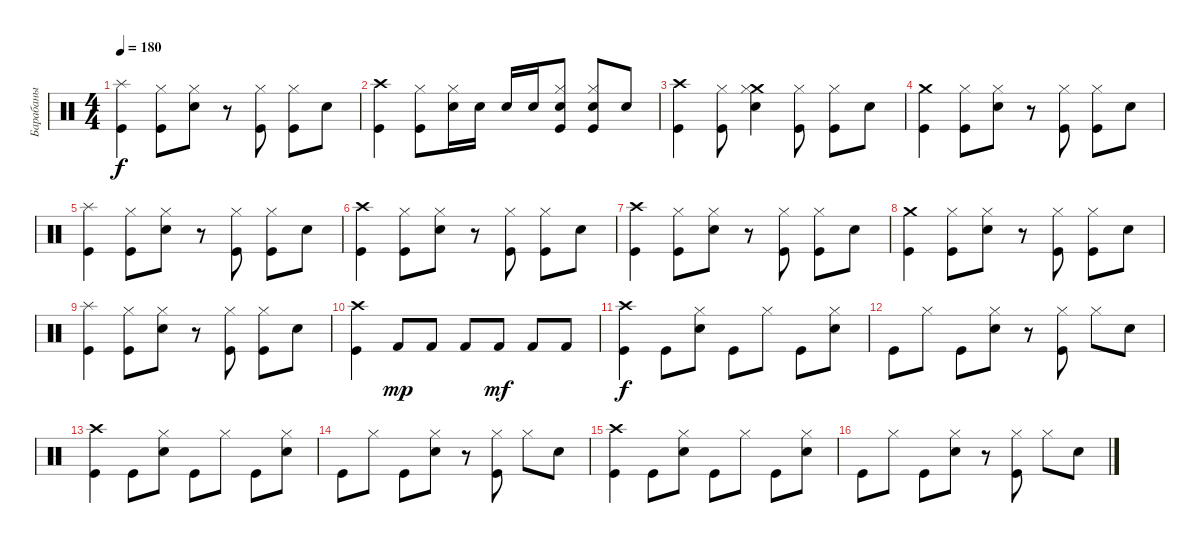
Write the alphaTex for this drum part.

\track ("Барабаны" "Барабаны") {instrument percussion}
\staff {score}
\articulation defaults
\ts (4 4)
\tempo 180
\clef neutral
\ks c
("Splash (hit)" "Kick (hit)").4{dy f} ("Hi-Hat (closed)" "Kick (hit)").8 ("Electric Snare (hit)" "Hi-Hat (closed)").8 r.8 ("Kick (hit)" "Hi-Hat (closed)").8 ("Kick (hit)" "Hi-Hat (closed)").8 "Electric Snare (hit)".8 |
("Kick (hit)" "Crash high (hit)").4 ("Kick (hit)" "Hi-Hat (closed)").8 ("Hi-Hat (closed)" "Electric Snare (hit)").16 "Electric Snare (hit)".16 "Electric Snare (hit)".16 "Electric Snare (hit)".16 ("Electric Snare (hit)" "Kick (hit)" "Hi-Hat (closed)").8 ("Electric Snare (hit)" "Hi-Hat (closed)" "Kick (hit)").8 "Electric Snare (hit)".8 |
("Crash high (hit)" "Kick (hit)").4 ("Hi-Hat (closed)" "Kick (hit)").8 ("Crash medium (hit)" "Electric Snare (hit)" "Hi-Hat (closed)").4 ("Hi-Hat (closed)" "Kick (hit)").8 ("Hi-Hat (closed)" "Kick (hit)").8 "Electric Snare (hit)".8 |
("Kick (hit)" "Crash medium (hit)").4 ("Kick (hit)" "Hi-Hat (closed)").8 ("Electric Snare (hit)" "Hi-Hat (closed)").8 r.8 ("Hi-Hat (closed)" "Kick (hit)").8 ("Kick (hit)" "Hi-Hat (closed)").8 "Electric Snare (hit)".8 |
("Splash (hit)" "Kick (hit)").4 ("Hi-Hat (closed)" "Kick (hit)").8 ("Electric Snare (hit)" "Hi-Hat (closed)").8 r.8 ("Kick (hit)" "Hi-Hat (closed)").8 ("Hi-Hat (closed)" "Kick (hit)").8 "Electric Snare (hit)".8 |
("Kick (hit)" "Crash high (hit)").4 ("Kick (hit)" "Hi-Hat (closed)").8 ("Hi-Hat (closed)" "Electric Snare (hit)").8 r.8 ("Hi-Hat (closed)" "Kick (hit)").8 ("Hi-Hat (closed)" "Kick (hit)").8 "Electric Snare (hit)".8 |
("Crash high (hit)" "Kick (hit)").4 ("Kick (hit)" "Hi-Hat (closed)").8 ("Hi-Hat (closed)" "Electric Snare (hit)").8 r.8 ("Hi-Hat (closed)" "Kick (hit)").8 ("Hi-Hat (closed)" "Kick (hit)").8 "Electric Snare (hit)".8 |
("Crash medium (hit)" "Kick (hit)").4 ("Hi-Hat (closed)" "Kick (hit)").8 ("Electric Snare (hit)" "Hi-Hat (closed)").8 r.8 ("Hi-Hat (closed)" "Kick (hit)").8 ("Hi-Hat (closed)" "Kick (hit)").8 "Electric Snare (hit)".8 |
("Splash (hit)" "Kick (hit)").4 ("Hi-Hat (closed)" "Kick (hit)").8 ("Hi-Hat (closed)" "Electric Snare (hit)").8 r.8 ("Hi-Hat (closed)" "Kick (hit)").8 ("Hi-Hat (closed)" "Kick (hit)").8 "Electric Snare (hit)".8 |
("Crash high (hit)" "Kick (hit)").4 "Kick (hit) 2".8{dy mp} "Kick (hit) 2".8 "Kick (hit) 2".8 "Kick (hit) 2".8{dy mf} "Kick (hit) 2".8 "Kick (hit) 2".8 |
("Crash high (hit)" "Kick (hit)").4{dy f} "Kick (hit)".8 ("Electric Snare (hit)" "Hi-Hat (closed)").8 "Kick (hit)".8 "Hi-Hat (closed)".8 "Kick (hit)".8 ("Electric Snare (hit)" "Hi-Hat (closed)").8 |
"Kick (hit)".8 "Hi-Hat (closed)".8 "Kick (hit)".8 ("Electric Snare (hit)" "Hi-Hat (closed)").8 r.8 ("Kick (hit)" "Hi-Hat (closed)").8 "Hi-Hat (closed)".8 "Electric Snare (hit)".8 |
("Crash high (hit)" "Kick (hit)").4 "Kick (hit)".8 ("Electric Snare (hit)" "Hi-Hat (closed)").8 "Kick (hit)".8 "Hi-Hat (closed)".8 "Kick (hit)".8 ("Hi-Hat (closed)" "Electric Snare (hit)").8 |
"Kick (hit)".8 "Hi-Hat (closed)".8 "Kick (hit)".8 ("Hi-Hat (closed)" "Electric Snare (hit)").8 r.8 ("Kick (hit)" "Hi-Hat (closed)").8 "Hi-Hat (closed)".8 "Electric Snare (hit)".8 |
("Kick (hit)" "Crash high (hit)").4 "Kick (hit)".8 ("Electric Snare (hit)" "Hi-Hat (closed)").8 "Kick (hit)".8 "Hi-Hat (closed)".8 "Kick (hit)".8 ("Hi-Hat (closed)" "Electric Snare (hit)").8 |
"Kick (hit)".8 "Hi-Hat (closed)".8 "Kick (hit)".8 ("Electric Snare (hit)" "Hi-Hat (closed)").8 r.8 ("Hi-Hat (closed)" "Kick (hit)").8 "Hi-Hat (closed)".8 "Electric Snare (hit)".8
